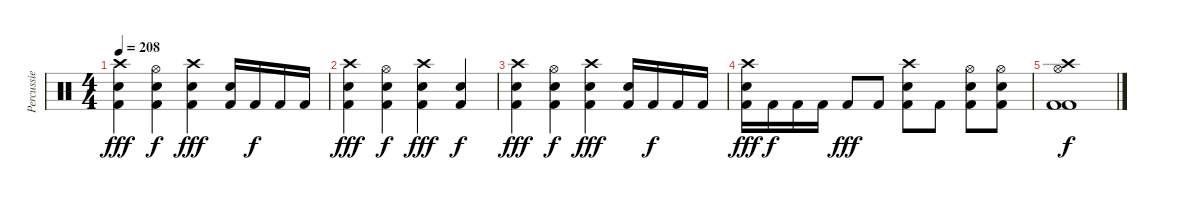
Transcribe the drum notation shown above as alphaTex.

\track ("Percussie" "Percussie") {instrument percussion}
\staff {score}
\articulation defaults
\ts (4 4)
\tempo 208
\clef neutral
\ks c
("Crash high (hit)" "Electric Snare (hit)" "Kick (hit) 2").4{dy fff} ("Hi-Hat (open)" "Electric Snare (hit)" "Kick (hit) 2").4{dy f} ("Crash high (hit)" "Electric Snare (hit)" "Kick (hit) 2").4{dy fff} ("Electric Snare (hit)" "Kick (hit) 2").16 "Kick (hit) 2".16{dy f} "Kick (hit) 2".16 "Kick (hit) 2".16 |
("Crash high (hit)" "Electric Snare (hit)" "Kick (hit) 2").4{dy fff} ("Hi-Hat (open)" "Electric Snare (hit)" "Kick (hit) 2").4{dy f} ("Crash high (hit)" "Electric Snare (hit)" "Kick (hit) 2").4{dy fff} ("Electric Snare (hit)" "Kick (hit) 2").4{dy f} |
("Crash high (hit)" "Electric Snare (hit)" "Kick (hit) 2").4{dy fff} ("Hi-Hat (open)" "Electric Snare (hit)" "Kick (hit) 2").4{dy f} ("Crash high (hit)" "Electric Snare (hit)" "Kick (hit) 2").4{dy fff} ("Electric Snare (hit)" "Kick (hit) 2").16 "Kick (hit) 2".16{dy f} "Kick (hit) 2".16 "Kick (hit) 2".16 |
("Crash high (hit)" "Electric Snare (hit)" "Kick (hit) 2").16{dy fff} "Kick (hit) 2".16{dy f} "Kick (hit) 2".16 "Kick (hit) 2".16 "Kick (hit) 2".8{dy fff} "Kick (hit) 2".8 ("Crash high (hit)" "Electric Snare (hit)" "Kick (hit) 2").8 "Kick (hit) 2".8 ("Hi-Hat (open)" "Electric Snare (hit)" "Kick (hit) 2").8 ("Hi-Hat (open)" "Electric Snare (hit)" "Kick (hit) 2").8 |
("Crash high (hit)" "Hi-Hat (open)" "Kick (hit) 2" "Kick (hit) 2").1{dy f}
